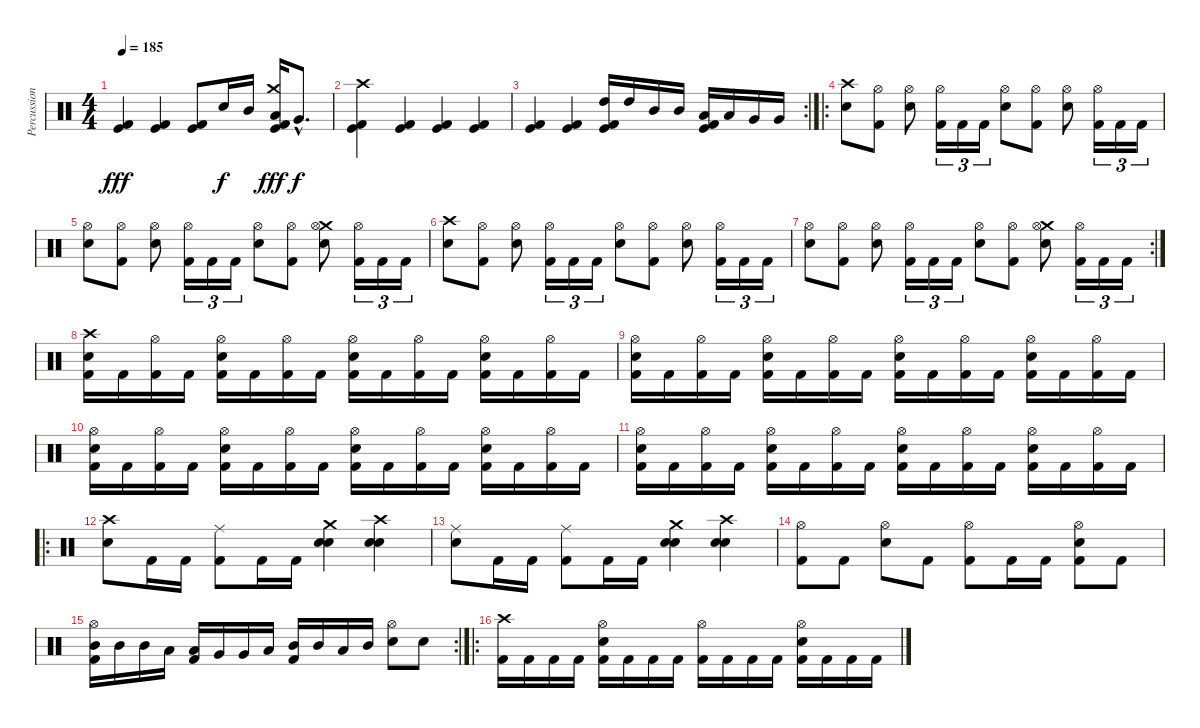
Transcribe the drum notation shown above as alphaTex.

\track ("Percussion" "Percussion") {instrument percussion}
\staff {score}
\articulation defaults
\ts (4 4)
\tempo 185
\clef neutral
\ks c
("Kick (hit)" "Kick (hit) 2").4{dy fff} ("Kick (hit)" "Kick (hit) 2").4 ("Kick (hit)" "Kick (hit) 2").8 "Electric Snare (hit)".16{dy f} "Mid Tom (hit)".16 ("Crash medium (hit)" "Kick (hit)" "Low Tom (hit)" "Kick (hit) 2").16{dy fff} "Very Low Tom (hit)"{hac}.8{d dy f} |
("Crash high (hit)" "Kick (hit)" "Kick (hit) 2").4 ("Kick (hit)" "Kick (hit) 2").4 ("Kick (hit)" "Kick (hit) 2").4 ("Kick (hit) 2" "Kick (hit)").4 |
\rc 2
("Kick (hit)" "Kick (hit) 2").4 ("Kick (hit)" "Kick (hit) 2").4 ("Kick (hit)" "High Tom (hit)" "Kick (hit) 2").16 "High Tom (hit)".16 "Mid Tom (hit)".16 "Mid Tom (hit)".16 ("Kick (hit)" "Low Tom (hit)" "Kick (hit) 2").16 "Low Tom (hit)".16 "Very Low Tom (hit)".16 "Very Low Tom (hit)".16 |
\ro
("Crash high (hit)" "Electric Snare (hit)").8 ("Hi-Hat (open)" "Kick (hit) 2").8 ("Hi-Hat (open)" "Electric Snare (hit)").8 ("Hi-Hat (open)" "Kick (hit) 2").16{tu (3 2)} "Kick (hit) 2".16{tu (3 2)} "Kick (hit) 2".16{tu (3 2)} ("Hi-Hat (open)" "Electric Snare (hit)").8 ("Hi-Hat (open)" "Kick (hit) 2").8 ("Hi-Hat (open)" "Electric Snare (hit)").8 ("Hi-Hat (open)" "Kick (hit) 2").16{tu (3 2)} "Kick (hit) 2".16{tu (3 2)} "Kick (hit) 2".16{tu (3 2)} |
("Hi-Hat (open)" "Electric Snare (hit)").8 ("Hi-Hat (open)" "Kick (hit) 2").8 ("Hi-Hat (open)" "Electric Snare (hit)").8 ("Hi-Hat (open)" "Kick (hit) 2").16{tu (3 2)} "Kick (hit) 2".16{tu (3 2)} "Kick (hit) 2".16{tu (3 2)} ("Hi-Hat (open)" "Electric Snare (hit)").8 ("Hi-Hat (open)" "Kick (hit) 2").8 ("Crash medium (hit)" "Hi-Hat (open)" "Electric Snare (hit)").8 ("Hi-Hat (open)" "Kick (hit) 2").16{tu (3 2)} "Kick (hit) 2".16{tu (3 2)} "Kick (hit) 2".16{tu (3 2)} |
("Crash high (hit)" "Electric Snare (hit)").8 ("Hi-Hat (open)" "Kick (hit) 2").8 ("Hi-Hat (open)" "Electric Snare (hit)").8 ("Hi-Hat (open)" "Kick (hit) 2").16{tu (3 2)} "Kick (hit) 2".16{tu (3 2)} "Kick (hit) 2".16{tu (3 2)} ("Hi-Hat (open)" "Electric Snare (hit)").8 ("Hi-Hat (open)" "Kick (hit) 2").8 ("Hi-Hat (open)" "Electric Snare (hit)").8 ("Hi-Hat (open)" "Kick (hit) 2").16{tu (3 2)} "Kick (hit) 2".16{tu (3 2)} "Kick (hit) 2".16{tu (3 2)} |
\rc 2
("Hi-Hat (open)" "Electric Snare (hit)").8 ("Hi-Hat (open)" "Kick (hit) 2").8 ("Hi-Hat (open)" "Electric Snare (hit)").8 ("Hi-Hat (open)" "Kick (hit) 2").16{tu (3 2)} "Kick (hit) 2".16{tu (3 2)} "Kick (hit) 2".16{tu (3 2)} ("Hi-Hat (open)" "Electric Snare (hit)").8 ("Hi-Hat (open)" "Kick (hit) 2").8 ("Crash medium (hit)" "Hi-Hat (open)" "Electric Snare (hit)").8 ("Hi-Hat (open)" "Kick (hit) 2").16{tu (3 2)} "Kick (hit) 2".16{tu (3 2)} "Kick (hit) 2".16{tu (3 2)} |
("Crash high (hit)" "Electric Snare (hit)" "Kick (hit) 2").16 "Kick (hit) 2".16 ("Hi-Hat (open)" "Kick (hit) 2").16 "Kick (hit) 2".16 ("Hi-Hat (open)" "Electric Snare (hit)" "Kick (hit) 2").16 "Kick (hit) 2".16 ("Hi-Hat (open)" "Kick (hit) 2").16 "Kick (hit) 2".16 ("Hi-Hat (open)" "Electric Snare (hit)" "Kick (hit) 2").16 "Kick (hit) 2".16 ("Hi-Hat (open)" "Kick (hit) 2").16 "Kick (hit) 2".16 ("Hi-Hat (open)" "Electric Snare (hit)" "Kick (hit) 2").16 "Kick (hit) 2".16 ("Hi-Hat (open)" "Kick (hit) 2").16 "Kick (hit) 2".16 |
("Hi-Hat (open)" "Electric Snare (hit)" "Kick (hit) 2").16 "Kick (hit) 2".16 ("Hi-Hat (open)" "Kick (hit) 2").16 "Kick (hit) 2".16 ("Hi-Hat (open)" "Electric Snare (hit)" "Kick (hit) 2").16 "Kick (hit) 2".16 ("Hi-Hat (open)" "Kick (hit) 2").16 "Kick (hit) 2".16 ("Hi-Hat (open)" "Electric Snare (hit)" "Kick (hit) 2").16 "Kick (hit) 2".16 ("Hi-Hat (open)" "Kick (hit) 2").16 "Kick (hit) 2".16 ("Hi-Hat (open)" "Electric Snare (hit)" "Kick (hit) 2").16 "Kick (hit) 2".16 ("Hi-Hat (open)" "Kick (hit) 2").16 "Kick (hit) 2".16 |
("Hi-Hat (open)" "Electric Snare (hit)" "Kick (hit) 2").16 "Kick (hit) 2".16 ("Hi-Hat (open)" "Kick (hit) 2").16 "Kick (hit) 2".16 ("Hi-Hat (open)" "Electric Snare (hit)" "Kick (hit) 2").16 "Kick (hit) 2".16 ("Hi-Hat (open)" "Kick (hit) 2").16 "Kick (hit) 2".16 ("Hi-Hat (open)" "Electric Snare (hit)" "Kick (hit) 2").16 "Kick (hit) 2".16 ("Hi-Hat (open)" "Kick (hit) 2").16 "Kick (hit) 2".16 ("Hi-Hat (open)" "Electric Snare (hit)" "Kick (hit) 2").16 "Kick (hit) 2".16 ("Hi-Hat (open)" "Kick (hit) 2").16 "Kick (hit) 2".16 |
("Hi-Hat (open)" "Electric Snare (hit)" "Kick (hit) 2").16 "Kick (hit) 2".16 ("Hi-Hat (open)" "Kick (hit) 2").16 "Kick (hit) 2".16 ("Hi-Hat (open)" "Electric Snare (hit)" "Kick (hit) 2").16 "Kick (hit) 2".16 ("Hi-Hat (open)" "Kick (hit) 2").16 "Kick (hit) 2".16 ("Hi-Hat (open)" "Electric Snare (hit)" "Kick (hit) 2").16 "Kick (hit) 2".16 ("Hi-Hat (open)" "Kick (hit) 2").16 "Kick (hit) 2".16 ("Hi-Hat (open)" "Electric Snare (hit)" "Kick (hit) 2").16 "Kick (hit) 2".16 ("Hi-Hat (open)" "Kick (hit) 2").16 "Kick (hit) 2".16 |
\ro
("Crash high (hit)" "Electric Snare (hit)").8 "Kick (hit) 2".16 "Kick (hit) 2".16 ("Ride (middle)" "Kick (hit) 2").8 "Kick (hit) 2".16 "Kick (hit) 2".16 ("Crash medium (hit)" "Electric Snare (hit)" "Snare (hit) 2").4 ("Crash high (hit)" "Electric Snare (hit)" "Snare (hit) 2").4 |
("Ride (middle)" "Electric Snare (hit)").8 "Kick (hit) 2".16 "Kick (hit) 2".16 ("Ride (middle)" "Kick (hit) 2").8 "Kick (hit) 2".16 "Kick (hit) 2".16 ("Crash medium (hit)" "Electric Snare (hit)" "Snare (hit) 2").4 ("Crash high (hit)" "Electric Snare (hit)" "Snare (hit) 2").4 |
("Hi-Hat (open)" "Kick (hit) 2").8 "Kick (hit) 2".8 ("Hi-Hat (open)" "Electric Snare (hit)").8 "Kick (hit) 2".8 ("Hi-Hat (open)" "Kick (hit) 2").8 "Kick (hit) 2".16 "Kick (hit) 2".16 ("Hi-Hat (open)" "Electric Snare (hit)" "Kick (hit) 2").8 "Kick (hit) 2".8 |
\rc 2
("Hi-Hat (open)" "Mid Tom (hit)" "Kick (hit) 2").16 "Mid Tom (hit)".16 "Mid Tom (hit)".16 "Low Tom (hit)".16 ("Low Tom (hit)" "Kick (hit) 2").16 "Very Low Tom (hit)".16 "Very Low Tom (hit)".16 "Low Tom (hit)".16 ("Mid Tom (hit)" "Kick (hit) 2").16 "Mid Tom (hit)".16 "Low Tom (hit)".16 "Mid Tom (hit)".16 ("Hi-Hat (open)" "Electric Snare (hit)").8 "Electric Snare (hit)".8 |
\ro
("Crash high (hit)" "Kick (hit) 2").16 "Kick (hit) 2".16 "Kick (hit) 2".16 "Kick (hit) 2".16 ("Hi-Hat (open)" "Electric Snare (hit)" "Kick (hit) 2").16 "Kick (hit) 2".16 "Kick (hit) 2".16 "Kick (hit) 2".16 ("Hi-Hat (open)" "Kick (hit) 2").16 "Kick (hit) 2".16 "Kick (hit) 2".16 "Kick (hit) 2".16 ("Hi-Hat (open)" "Electric Snare (hit)" "Kick (hit) 2").16 "Kick (hit) 2".16 "Kick (hit) 2".16 "Kick (hit) 2".16
